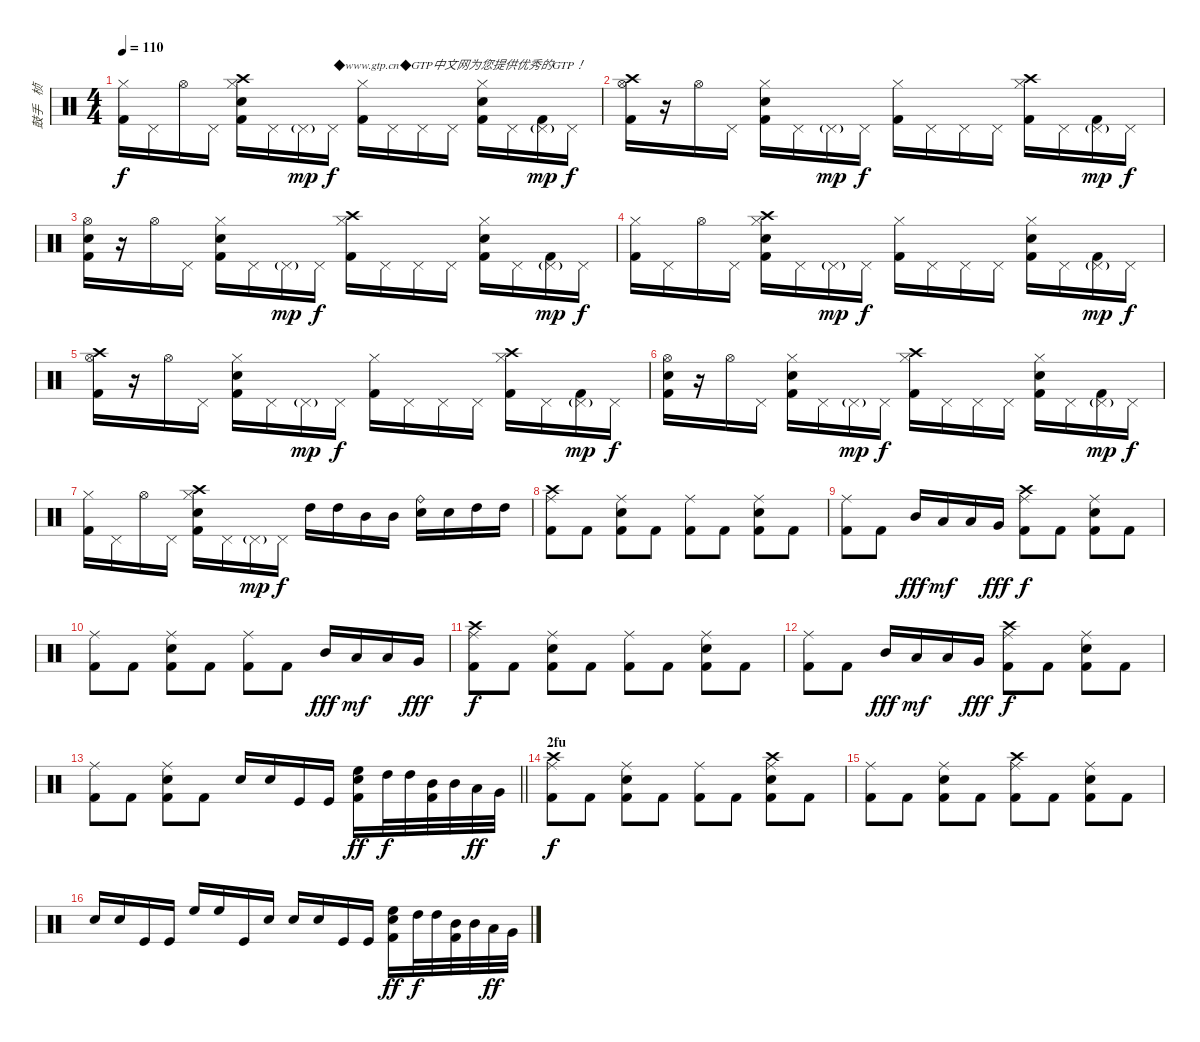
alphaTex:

\track ("鼓手   桢" "鼓手   桢") {instrument percussion bank 1}
\staff {score}
\articulation defaults
\ts (4 4)
\tempo 110
\clef neutral
\ks c
("Hi-Hat (closed)" "Kick (hit) 2").16{dy f} "Pedal Hi-Hat (hit)".16 "Hi-Hat (open)".16 "Pedal Hi-Hat (hit)".16 ("Hi-Hat (closed)" "Snare (hit) 2" "Kick (hit) 2" "Crash high (hit)").16 "Pedal Hi-Hat (hit)".16 "Pedal Hi-Hat (hit)"{g}.16{dy mp} "Pedal Hi-Hat (hit)".16{txt "◆www.gtp.cn◆GTP中文网为您提供优秀的GTP！" dy f} ("Hi-Hat (closed)" "Kick (hit) 2").16 "Pedal Hi-Hat (hit)".16 "Pedal Hi-Hat (hit)".16 "Pedal Hi-Hat (hit)".16 ("Hi-Hat (closed)" "Snare (hit) 2" "Kick (hit) 2").16 "Pedal Hi-Hat (hit)".16 ("Pedal Hi-Hat (hit)"{g} "Kick (hit) 2").16{dy mp} "Pedal Hi-Hat (hit)".16{dy f} |
("Hi-Hat (open)" "Kick (hit) 2" "Crash high (hit)").16 r.16 "Hi-Hat (open)".16 "Pedal Hi-Hat (hit)".16 ("Hi-Hat (closed)" "Snare (hit) 2" "Kick (hit) 2").16 "Pedal Hi-Hat (hit)".16 "Pedal Hi-Hat (hit)"{g}.16{dy mp} "Pedal Hi-Hat (hit)".16{dy f} ("Hi-Hat (closed)" "Kick (hit) 2").16 "Pedal Hi-Hat (hit)".16 "Pedal Hi-Hat (hit)".16 "Pedal Hi-Hat (hit)".16 ("Hi-Hat (closed)" "Kick (hit) 2" "Crash high (hit)").16 "Pedal Hi-Hat (hit)".16 ("Pedal Hi-Hat (hit)"{g} "Kick (hit) 2").16{dy mp} "Pedal Hi-Hat (hit)".16{dy f} |
("Hi-Hat (open)" "Snare (hit) 2" "Kick (hit) 2").16 r.16 "Hi-Hat (open)".16 "Pedal Hi-Hat (hit)".16 ("Hi-Hat (closed)" "Snare (hit) 2" "Kick (hit) 2").16 "Pedal Hi-Hat (hit)".16 "Pedal Hi-Hat (hit)"{g}.16{dy mp} "Pedal Hi-Hat (hit)".16{dy f} ("Hi-Hat (closed)" "Kick (hit) 2" "Crash high (hit)").16 "Pedal Hi-Hat (hit)".16 "Pedal Hi-Hat (hit)".16 "Pedal Hi-Hat (hit)".16 ("Hi-Hat (closed)" "Snare (hit) 2" "Kick (hit) 2").16 "Pedal Hi-Hat (hit)".16 ("Pedal Hi-Hat (hit)"{g} "Kick (hit) 2").16{dy mp} "Pedal Hi-Hat (hit)".16{dy f} |
("Hi-Hat (closed)" "Kick (hit) 2").16 "Pedal Hi-Hat (hit)".16 "Hi-Hat (open)".16 "Pedal Hi-Hat (hit)".16 ("Hi-Hat (closed)" "Snare (hit) 2" "Kick (hit) 2" "Crash high (hit)").16 "Pedal Hi-Hat (hit)".16 "Pedal Hi-Hat (hit)"{g}.16{dy mp} "Pedal Hi-Hat (hit)".16{dy f} ("Hi-Hat (closed)" "Kick (hit) 2").16 "Pedal Hi-Hat (hit)".16 "Pedal Hi-Hat (hit)".16 "Pedal Hi-Hat (hit)".16 ("Hi-Hat (closed)" "Snare (hit) 2" "Kick (hit) 2").16 "Pedal Hi-Hat (hit)".16 ("Pedal Hi-Hat (hit)"{g} "Kick (hit) 2").16{dy mp} "Pedal Hi-Hat (hit)".16{dy f} |
("Hi-Hat (open)" "Kick (hit) 2" "Crash high (hit)").16 r.16 "Hi-Hat (open)".16 "Pedal Hi-Hat (hit)".16 ("Hi-Hat (closed)" "Snare (hit) 2" "Kick (hit) 2").16 "Pedal Hi-Hat (hit)".16 "Pedal Hi-Hat (hit)"{g}.16{dy mp} "Pedal Hi-Hat (hit)".16{dy f} ("Hi-Hat (closed)" "Kick (hit) 2").16 "Pedal Hi-Hat (hit)".16 "Pedal Hi-Hat (hit)".16 "Pedal Hi-Hat (hit)".16 ("Hi-Hat (closed)" "Kick (hit) 2" "Crash high (hit)").16 "Pedal Hi-Hat (hit)".16 ("Pedal Hi-Hat (hit)"{g} "Kick (hit) 2").16{dy mp} "Pedal Hi-Hat (hit)".16{dy f} |
("Hi-Hat (open)" "Snare (hit) 2" "Kick (hit) 2").16 r.16 "Hi-Hat (open)".16 "Pedal Hi-Hat (hit)".16 ("Hi-Hat (closed)" "Snare (hit) 2" "Kick (hit) 2").16 "Pedal Hi-Hat (hit)".16 "Pedal Hi-Hat (hit)"{g}.16{dy mp} "Pedal Hi-Hat (hit)".16{dy f} ("Hi-Hat (closed)" "Kick (hit) 2" "Crash high (hit)").16 "Pedal Hi-Hat (hit)".16 "Pedal Hi-Hat (hit)".16 "Pedal Hi-Hat (hit)".16 ("Hi-Hat (closed)" "Snare (hit) 2" "Kick (hit) 2").16 "Pedal Hi-Hat (hit)".16 ("Pedal Hi-Hat (hit)"{g} "Kick (hit) 2").16{dy mp} "Pedal Hi-Hat (hit)".16{dy f} |
("Hi-Hat (closed)" "Kick (hit) 2").16 "Pedal Hi-Hat (hit)".16 "Hi-Hat (open)".16 "Pedal Hi-Hat (hit)".16 ("Hi-Hat (closed)" "Snare (hit) 2" "Kick (hit) 2" "Crash high (hit)").16 "Pedal Hi-Hat (hit)".16 "Pedal Hi-Hat (hit)"{g}.16{dy mp} "Pedal Hi-Hat (hit)".16{dy f} "High Tom (hit)".16 "High Tom (hit)".16 "Mid Tom (hit)".16 "Mid Tom (hit)".16 ("Ride (bell)" "Snare (hit) 2").16 "Snare (hit) 2".16 "High Tom (hit)".16 "High Tom (hit)".16 |
("Ride (middle)" "Kick (hit) 2" "Crash high (hit)").8 "Kick (hit) 2".8 ("Ride (middle)" "Snare (hit) 2" "Kick (hit) 2").8 "Kick (hit) 2".8 ("Ride (middle)" "Kick (hit) 2").8 "Kick (hit) 2".8 ("Ride (middle)" "Snare (hit) 2" "Kick (hit) 2").8 "Kick (hit) 2".8 |
("Ride (middle)" "Kick (hit) 2").8 "Kick (hit) 2".8 "Mid Tom (hit)".16{dy fff} "Low Tom (hit)".16{dy mf} "Low Tom (hit)".16 "Very Low Tom (hit)".16{dy fff} ("Ride (middle)" "Kick (hit) 2" "Crash high (hit)").8{dy f} "Kick (hit) 2".8 ("Ride (middle)" "Snare (hit) 2" "Kick (hit) 2").8 "Kick (hit) 2".8 |
("Ride (middle)" "Kick (hit) 2").8 "Kick (hit) 2".8 ("Ride (middle)" "Snare (hit) 2" "Kick (hit) 2").8 "Kick (hit) 2".8 ("Ride (middle)" "Kick (hit) 2").8 "Kick (hit) 2".8 "Mid Tom (hit)".16{dy fff} "Low Tom (hit)".16{dy mf} "Low Tom (hit)".16 "Very Low Tom (hit)".16{dy fff} |
("Ride (middle)" "Kick (hit) 2" "Crash high (hit)").8{dy f} "Kick (hit) 2".8 ("Ride (middle)" "Snare (hit) 2" "Kick (hit) 2").8 "Kick (hit) 2".8 ("Ride (middle)" "Kick (hit) 2").8 "Kick (hit) 2".8 ("Ride (middle)" "Snare (hit) 2" "Kick (hit) 2").8 "Kick (hit) 2".8 |
("Ride (middle)" "Kick (hit) 2").8 "Kick (hit) 2".8 "Mid Tom (hit)".16{dy fff} "Low Tom (hit)".16{dy mf} "Low Tom (hit)".16 "Very Low Tom (hit)".16{dy fff} ("Ride (middle)" "Kick (hit) 2" "Crash high (hit)").8{dy f} "Kick (hit) 2".8 ("Ride (middle)" "Snare (hit) 2" "Kick (hit) 2").8 "Kick (hit) 2".8 |
\barLineRight lightlight
("Ride (middle)" "Kick (hit) 2").8 "Kick (hit) 2".8 ("Ride (middle)" "Snare (hit) 2" "Kick (hit) 2").8 "Kick (hit) 2".8 "Snare (hit) 2".16 "Snare (hit) 2".16 "Kick (hit)".16 "Kick (hit)".16 ("Electric Snare (hit)" "High Floor Tom (hit)" "Kick (hit) 2").16{dy ff} "High Tom (hit)".32{dy f} "High Tom (hit)".32 ("Mid Tom (hit)" "Kick (hit) 2").32 "Mid Tom (hit)".32 "Low Tom (hit)".32{dy ff} "Very Low Tom (hit)".32 |
\section ("" "2fu")
("Ride (middle)" "Kick (hit) 2" "Crash high (hit)").8{dy f} "Kick (hit) 2".8 ("Ride (middle)" "Snare (hit) 2" "Kick (hit) 2").8 "Kick (hit) 2".8 ("Ride (middle)" "Kick (hit) 2").8 "Kick (hit) 2".8 ("Ride (middle)" "Snare (hit) 2" "Kick (hit) 2" "Crash high (hit)").8 "Kick (hit) 2".8 |
("Ride (middle)" "Kick (hit) 2").8 "Kick (hit) 2".8 ("Ride (middle)" "Snare (hit) 2" "Kick (hit) 2").8 "Kick (hit) 2".8 ("Ride (middle)" "Kick (hit) 2" "Crash high (hit)").8 "Kick (hit) 2".8 ("Ride (middle)" "Snare (hit) 2" "Kick (hit) 2").8 "Kick (hit) 2".8 |
"Snare (hit) 2".16 "Snare (hit) 2".16 "Kick (hit)".16 "Kick (hit)".16 "High Floor Tom (hit)".16 "High Floor Tom (hit)".16 "Kick (hit)".16 "Snare (hit) 2".16 "Snare (hit) 2".16 "Snare (hit) 2".16 "Kick (hit)".16 "Kick (hit)".16 ("Electric Snare (hit)" "High Floor Tom (hit)" "Kick (hit) 2").16{dy ff} "High Tom (hit)".32{dy f} "High Tom (hit)".32 ("Mid Tom (hit)" "Kick (hit) 2").32 "Mid Tom (hit)".32 "Low Tom (hit)".32{dy ff} "Very Low Tom (hit)".32
